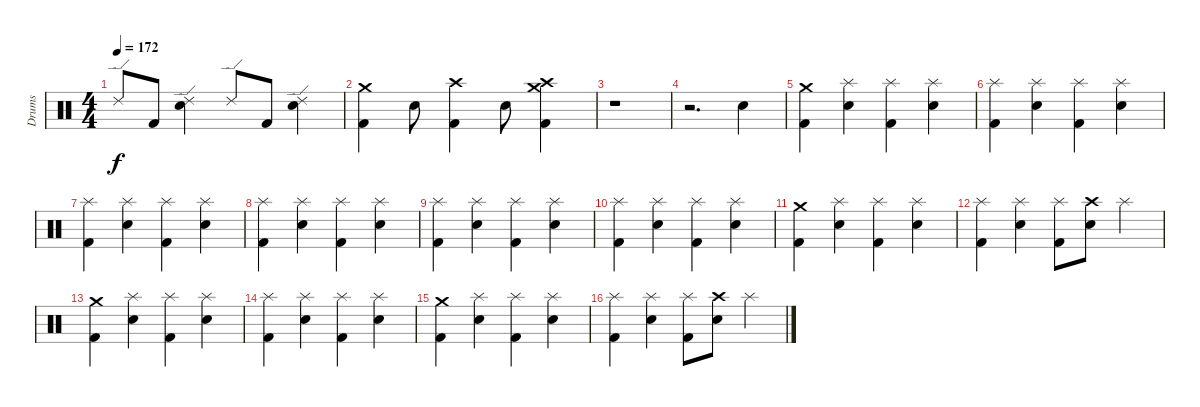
\track ("Drums" "Drums") {instrument percussion}
\staff {score}
\articulation defaults
\ts (4 4)
\tempo 172
\clef neutral
\ks c "Ride (edge) 2".8{dy f} "Kick (hit) 2".8
("Snare (hit) 2" "Ride (edge) 2").4 "Ride (edge) 2".8 "Kick (hit) 2".8 ("Snare (hit) 2" "Ride (edge) 2").4 |
("Crash medium (hit)" "Kick (hit) 2").4 "Snare (hit) 2".8 ("Crash high (hit)" "Kick (hit) 2").4 "Snare (hit) 2".8 ("Crash high (hit)" "Crash medium (hit)" "Kick (hit) 2").4 |
r.1 |
r.2{d} "Snare (hit) 2".4 |
("Kick (hit) 2" "Crash medium (hit)").4 ("Splash (hit)" "Snare (hit) 2").4 ("Splash (hit)" "Kick (hit) 2").4 ("Splash (hit)" "Snare (hit) 2").4 |
("Splash (hit)" "Kick (hit) 2").4 ("Splash (hit)" "Snare (hit) 2").4 ("Splash (hit)" "Kick (hit) 2").4 ("Splash (hit)" "Snare (hit) 2").4 |
("Splash (hit)" "Kick (hit) 2").4 ("Splash (hit)" "Snare (hit) 2").4 ("Splash (hit)" "Kick (hit) 2").4 ("Splash (hit)" "Snare (hit) 2").4 |
("Splash (hit)" "Kick (hit) 2").4 ("Splash (hit)" "Snare (hit) 2").4 ("Splash (hit)" "Kick (hit) 2").4 ("Splash (hit)" "Snare (hit) 2").4 |
("Splash (hit)" "Kick (hit) 2").4 ("Splash (hit)" "Snare (hit) 2").4 ("Splash (hit)" "Kick (hit) 2").4 ("Splash (hit)" "Snare (hit) 2").4 |
("Splash (hit)" "Kick (hit) 2").4 ("Splash (hit)" "Snare (hit) 2").4 ("Splash (hit)" "Kick (hit) 2").4 ("Splash (hit)" "Snare (hit) 2").4 |
("Kick (hit) 2" "Crash medium (hit)").4 ("Splash (hit)" "Snare (hit) 2").4 ("Splash (hit)" "Kick (hit) 2").4 ("Splash (hit)" "Snare (hit) 2").4 |
("Splash (hit)" "Kick (hit) 2").4 ("Splash (hit)" "Snare (hit) 2").4 ("Splash (hit)" "Kick (hit) 2").8 ("Snare (hit) 2" "Crash high (hit)").8 "Splash (hit)".4 |
("Kick (hit) 2" "Crash medium (hit)").4 ("Splash (hit)" "Snare (hit) 2").4 ("Splash (hit)" "Kick (hit) 2").4 ("Splash (hit)" "Snare (hit) 2").4 |
("Splash (hit)" "Kick (hit) 2").4 ("Splash (hit)" "Snare (hit) 2").4 ("Splash (hit)" "Kick (hit) 2").4 ("Splash (hit)" "Snare (hit) 2").4 |
("Kick (hit) 2" "Crash medium (hit)").4 ("Splash (hit)" "Snare (hit) 2").4 ("Splash (hit)" "Kick (hit) 2").4 ("Splash (hit)" "Snare (hit) 2").4 |
("Splash (hit)" "Kick (hit) 2").4 ("Splash (hit)" "Snare (hit) 2").4 ("Splash (hit)" "Kick (hit) 2").8 ("Snare (hit) 2" "Crash high (hit)").8 "Splash (hit)".4
